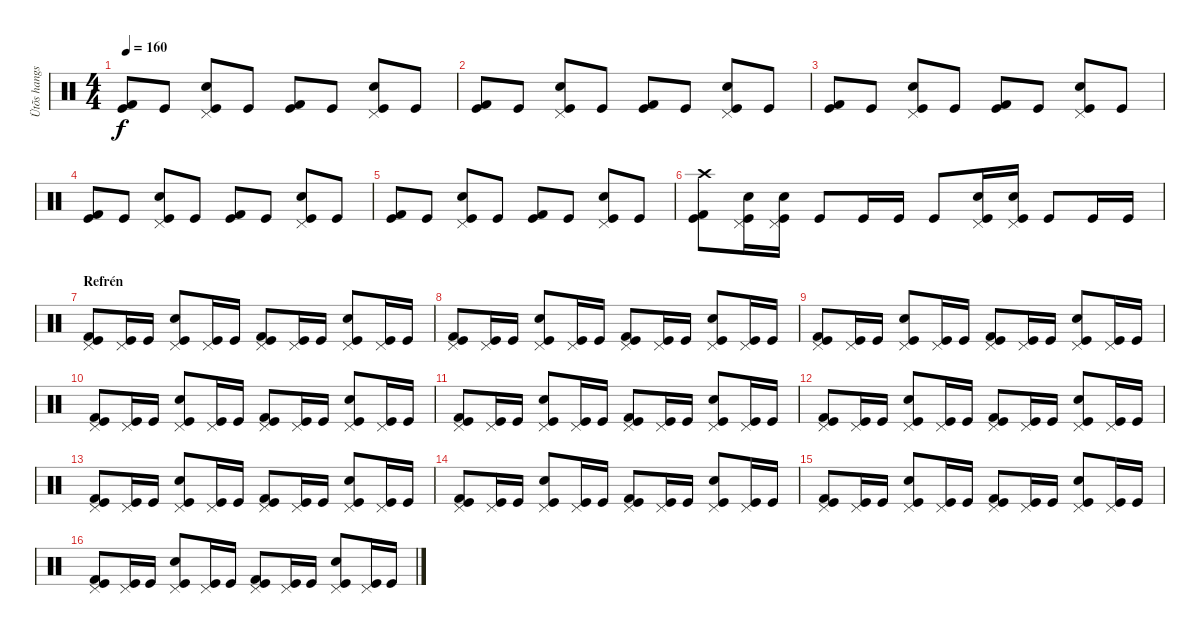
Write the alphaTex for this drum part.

\track ("Ütõs hangszer" "Ütõs hangs") {instrument percussion}
\staff {score}
\articulation defaults
\ts (4 4)
\tempo 160
\clef neutral
\ks c
("Kick (hit) 2" "Kick (hit)").8{dy f} "Kick (hit)".8 ("Pedal Hi-Hat (hit)" "Snare (hit) 2" "Kick (hit)").8 "Kick (hit)".8 ("Kick (hit) 2" "Kick (hit)").8 "Kick (hit)".8 ("Pedal Hi-Hat (hit)" "Snare (hit) 2" "Kick (hit)").8 "Kick (hit)".8 |
("Kick (hit) 2" "Kick (hit)").8 "Kick (hit)".8 ("Pedal Hi-Hat (hit)" "Snare (hit) 2" "Kick (hit)").8 "Kick (hit)".8 ("Kick (hit) 2" "Kick (hit)").8 "Kick (hit)".8 ("Pedal Hi-Hat (hit)" "Snare (hit) 2" "Kick (hit)").8 "Kick (hit)".8 |
("Kick (hit) 2" "Kick (hit)").8 "Kick (hit)".8 ("Pedal Hi-Hat (hit)" "Snare (hit) 2" "Kick (hit)").8 "Kick (hit)".8 ("Kick (hit) 2" "Kick (hit)").8 "Kick (hit)".8 ("Pedal Hi-Hat (hit)" "Snare (hit) 2" "Kick (hit)").8 "Kick (hit)".8 |
("Kick (hit) 2" "Kick (hit)").8 "Kick (hit)".8 ("Pedal Hi-Hat (hit)" "Snare (hit) 2" "Kick (hit)").8 "Kick (hit)".8 ("Kick (hit) 2" "Kick (hit)").8 "Kick (hit)".8 ("Pedal Hi-Hat (hit)" "Snare (hit) 2" "Kick (hit)").8 "Kick (hit)".8 |
("Kick (hit) 2" "Kick (hit)").8 "Kick (hit)".8 ("Pedal Hi-Hat (hit)" "Snare (hit) 2" "Kick (hit)").8 "Kick (hit)".8 ("Kick (hit) 2" "Kick (hit)").8 "Kick (hit)".8 ("Pedal Hi-Hat (hit)" "Snare (hit) 2" "Kick (hit)").8 "Kick (hit)".8 |
("Crash high (hit)" "Kick (hit) 2" "Kick (hit)").8 ("Pedal Hi-Hat (hit)" "Electric Snare (hit)" "Kick (hit)").16 ("Pedal Hi-Hat (hit)" "Electric Snare (hit)" "Kick (hit)").16 "Kick (hit)".8 "Kick (hit)".16 "Kick (hit)".16 "Kick (hit)".8 ("Pedal Hi-Hat (hit)" "Electric Snare (hit)" "Kick (hit)").16 ("Pedal Hi-Hat (hit)" "Electric Snare (hit)" "Kick (hit)").16 "Kick (hit)".8 "Kick (hit)".16 "Kick (hit)".16 |
\section ("" "Refrén")
("Pedal Hi-Hat (hit)" "Kick (hit) 2" "Kick (hit)").8 ("Pedal Hi-Hat (hit)" "Kick (hit)").16 "Kick (hit)".16 ("Pedal Hi-Hat (hit)" "Snare (hit) 2" "Kick (hit)").8 ("Pedal Hi-Hat (hit)" "Kick (hit)").16 "Kick (hit)".16 ("Pedal Hi-Hat (hit)" "Kick (hit) 2" "Kick (hit)").8 ("Pedal Hi-Hat (hit)" "Kick (hit)").16 "Kick (hit)".16 ("Pedal Hi-Hat (hit)" "Snare (hit) 2" "Kick (hit)").8 ("Pedal Hi-Hat (hit)" "Kick (hit)").16 "Kick (hit)".16 |
("Pedal Hi-Hat (hit)" "Kick (hit) 2" "Kick (hit)").8 ("Pedal Hi-Hat (hit)" "Kick (hit)").16 "Kick (hit)".16 ("Pedal Hi-Hat (hit)" "Snare (hit) 2" "Kick (hit)").8 ("Pedal Hi-Hat (hit)" "Kick (hit)").16 "Kick (hit)".16 ("Pedal Hi-Hat (hit)" "Kick (hit) 2" "Kick (hit)").8 ("Pedal Hi-Hat (hit)" "Kick (hit)").16 "Kick (hit)".16 ("Pedal Hi-Hat (hit)" "Snare (hit) 2" "Kick (hit)").8 ("Pedal Hi-Hat (hit)" "Kick (hit)").16 "Kick (hit)".16 |
("Pedal Hi-Hat (hit)" "Kick (hit) 2" "Kick (hit)").8 ("Pedal Hi-Hat (hit)" "Kick (hit)").16 "Kick (hit)".16 ("Pedal Hi-Hat (hit)" "Snare (hit) 2" "Kick (hit)").8 ("Pedal Hi-Hat (hit)" "Kick (hit)").16 "Kick (hit)".16 ("Pedal Hi-Hat (hit)" "Kick (hit) 2" "Kick (hit)").8 ("Pedal Hi-Hat (hit)" "Kick (hit)").16 "Kick (hit)".16 ("Pedal Hi-Hat (hit)" "Snare (hit) 2" "Kick (hit)").8 ("Pedal Hi-Hat (hit)" "Kick (hit)").16 "Kick (hit)".16 |
("Pedal Hi-Hat (hit)" "Kick (hit) 2" "Kick (hit)").8 ("Pedal Hi-Hat (hit)" "Kick (hit)").16 "Kick (hit)".16 ("Pedal Hi-Hat (hit)" "Snare (hit) 2" "Kick (hit)").8 ("Pedal Hi-Hat (hit)" "Kick (hit)").16 "Kick (hit)".16 ("Pedal Hi-Hat (hit)" "Kick (hit) 2" "Kick (hit)").8 ("Pedal Hi-Hat (hit)" "Kick (hit)").16 "Kick (hit)".16 ("Pedal Hi-Hat (hit)" "Snare (hit) 2" "Kick (hit)").8 ("Pedal Hi-Hat (hit)" "Kick (hit)").16 "Kick (hit)".16 |
("Pedal Hi-Hat (hit)" "Kick (hit) 2" "Kick (hit)").8 ("Pedal Hi-Hat (hit)" "Kick (hit)").16 "Kick (hit)".16 ("Pedal Hi-Hat (hit)" "Snare (hit) 2" "Kick (hit)").8 ("Pedal Hi-Hat (hit)" "Kick (hit)").16 "Kick (hit)".16 ("Pedal Hi-Hat (hit)" "Kick (hit) 2" "Kick (hit)").8 ("Pedal Hi-Hat (hit)" "Kick (hit)").16 "Kick (hit)".16 ("Pedal Hi-Hat (hit)" "Snare (hit) 2" "Kick (hit)").8 ("Pedal Hi-Hat (hit)" "Kick (hit)").16 "Kick (hit)".16 |
("Pedal Hi-Hat (hit)" "Kick (hit) 2" "Kick (hit)").8 ("Pedal Hi-Hat (hit)" "Kick (hit)").16 "Kick (hit)".16 ("Pedal Hi-Hat (hit)" "Snare (hit) 2" "Kick (hit)").8 ("Pedal Hi-Hat (hit)" "Kick (hit)").16 "Kick (hit)".16 ("Pedal Hi-Hat (hit)" "Kick (hit) 2" "Kick (hit)").8 ("Pedal Hi-Hat (hit)" "Kick (hit)").16 "Kick (hit)".16 ("Pedal Hi-Hat (hit)" "Snare (hit) 2" "Kick (hit)").8 ("Pedal Hi-Hat (hit)" "Kick (hit)").16 "Kick (hit)".16 |
("Pedal Hi-Hat (hit)" "Kick (hit) 2" "Kick (hit)").8 ("Pedal Hi-Hat (hit)" "Kick (hit)").16 "Kick (hit)".16 ("Pedal Hi-Hat (hit)" "Snare (hit) 2" "Kick (hit)").8 ("Pedal Hi-Hat (hit)" "Kick (hit)").16 "Kick (hit)".16 ("Pedal Hi-Hat (hit)" "Kick (hit) 2" "Kick (hit)").8 ("Pedal Hi-Hat (hit)" "Kick (hit)").16 "Kick (hit)".16 ("Pedal Hi-Hat (hit)" "Snare (hit) 2" "Kick (hit)").8 ("Pedal Hi-Hat (hit)" "Kick (hit)").16 "Kick (hit)".16 |
("Pedal Hi-Hat (hit)" "Kick (hit) 2" "Kick (hit)").8 ("Pedal Hi-Hat (hit)" "Kick (hit)").16 "Kick (hit)".16 ("Pedal Hi-Hat (hit)" "Snare (hit) 2" "Kick (hit)").8 ("Pedal Hi-Hat (hit)" "Kick (hit)").16 "Kick (hit)".16 ("Pedal Hi-Hat (hit)" "Kick (hit) 2" "Kick (hit)").8 ("Pedal Hi-Hat (hit)" "Kick (hit)").16 "Kick (hit)".16 ("Pedal Hi-Hat (hit)" "Snare (hit) 2" "Kick (hit)").8 ("Pedal Hi-Hat (hit)" "Kick (hit)").16 "Kick (hit)".16 |
("Pedal Hi-Hat (hit)" "Kick (hit) 2" "Kick (hit)").8 ("Pedal Hi-Hat (hit)" "Kick (hit)").16 "Kick (hit)".16 ("Pedal Hi-Hat (hit)" "Snare (hit) 2" "Kick (hit)").8 ("Pedal Hi-Hat (hit)" "Kick (hit)").16 "Kick (hit)".16 ("Pedal Hi-Hat (hit)" "Kick (hit) 2" "Kick (hit)").8 ("Pedal Hi-Hat (hit)" "Kick (hit)").16 "Kick (hit)".16 ("Pedal Hi-Hat (hit)" "Snare (hit) 2" "Kick (hit)").8 ("Pedal Hi-Hat (hit)" "Kick (hit)").16 "Kick (hit)".16 |
("Pedal Hi-Hat (hit)" "Kick (hit) 2" "Kick (hit)").8 ("Pedal Hi-Hat (hit)" "Kick (hit)").16 "Kick (hit)".16 ("Pedal Hi-Hat (hit)" "Snare (hit) 2" "Kick (hit)").8 ("Pedal Hi-Hat (hit)" "Kick (hit)").16 "Kick (hit)".16 ("Pedal Hi-Hat (hit)" "Kick (hit) 2" "Kick (hit)").8 ("Pedal Hi-Hat (hit)" "Kick (hit)").16 "Kick (hit)".16 ("Pedal Hi-Hat (hit)" "Snare (hit) 2" "Kick (hit)").8 ("Pedal Hi-Hat (hit)" "Kick (hit)").16 "Kick (hit)".16
